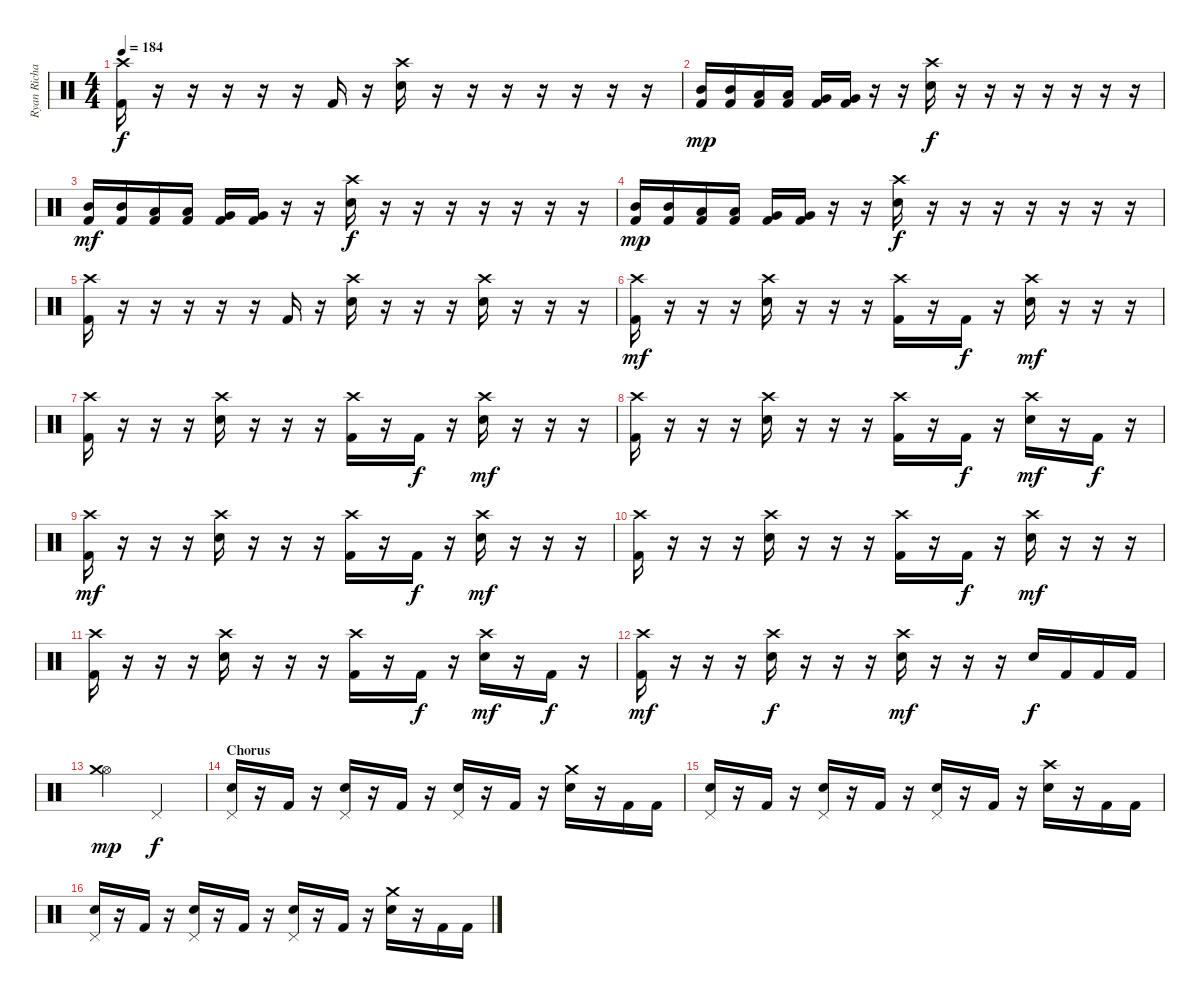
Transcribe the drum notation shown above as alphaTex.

\track ("Ryan Richards" "Ryan Richa") {instrument percussion}
\staff {score}
\articulation defaults
\ts (4 4)
\tempo 184
\clef neutral
\ks c
("Kick (hit) 2" "Crash high (hit)").16{dy f} r.16 r.16 r.16 r.16 r.16 "Kick (hit) 2".16 r.16 ("Snare (hit) 2" "Crash high (hit)").16 r.16 r.16 r.16 r.16 r.16 r.16 r.16 |
("Kick (hit) 2" "Mid Tom (hit)").16{dy mp} ("Kick (hit) 2" "Mid Tom (hit)").16 ("Kick (hit) 2" "Low Tom (hit)").16 ("Kick (hit) 2" "Low Tom (hit)").16 ("Kick (hit) 2" "Very Low Tom (hit)").16 ("Kick (hit) 2" "Very Low Tom (hit)").16 r.16 r.16 ("Snare (hit) 2" "Crash high (hit)").16{dy f} r.16 r.16 r.16 r.16 r.16 r.16 r.16 |
("Kick (hit) 2" "Mid Tom (hit)").16{dy mf} ("Kick (hit) 2" "Mid Tom (hit)").16 ("Kick (hit) 2" "Low Tom (hit)").16 ("Kick (hit) 2" "Low Tom (hit)").16 ("Kick (hit) 2" "Very Low Tom (hit)").16 ("Kick (hit) 2" "Very Low Tom (hit)").16 r.16 r.16 ("Snare (hit) 2" "Crash high (hit)").16{dy f} r.16 r.16 r.16 r.16 r.16 r.16 r.16 |
("Kick (hit) 2" "Mid Tom (hit)").16{dy mp} ("Kick (hit) 2" "Mid Tom (hit)").16 ("Kick (hit) 2" "Low Tom (hit)").16 ("Kick (hit) 2" "Low Tom (hit)").16 ("Kick (hit) 2" "Very Low Tom (hit)").16 ("Kick (hit) 2" "Very Low Tom (hit)").16 r.16 r.16 ("Snare (hit) 2" "Crash high (hit)").16{dy f} r.16 r.16 r.16 r.16 r.16 r.16 r.16 |
("Kick (hit) 2" "Crash high (hit)").16 r.16 r.16 r.16 r.16 r.16 "Kick (hit) 2".16 r.16 ("Snare (hit) 2" "Crash high (hit)").16 r.16 r.16 r.16 ("Snare (hit) 2" "Crash high (hit)").16 r.16 r.16 r.16 |
("Kick (hit) 2" "Crash high (hit)").16{dy mf} r.16 r.16 r.16 ("Snare (hit) 2" "Crash high (hit)").16 r.16 r.16 r.16 ("Kick (hit) 2" "Crash high (hit)").16 r.16 "Kick (hit) 2".16{dy f} r.16 ("Snare (hit) 2" "Crash high (hit)").16{dy mf} r.16 r.16 r.16 |
("Kick (hit) 2" "Crash high (hit)").16 r.16 r.16 r.16 ("Snare (hit) 2" "Crash high (hit)").16 r.16 r.16 r.16 ("Kick (hit) 2" "Crash high (hit)").16 r.16 "Kick (hit) 2".16{dy f} r.16 ("Snare (hit) 2" "Crash high (hit)").16{dy mf} r.16 r.16 r.16 |
("Kick (hit) 2" "Crash high (hit)").16 r.16 r.16 r.16 ("Snare (hit) 2" "Crash high (hit)").16 r.16 r.16 r.16 ("Kick (hit) 2" "Crash high (hit)").16 r.16 "Kick (hit) 2".16{dy f} r.16 ("Snare (hit) 2" "Crash high (hit)").16{dy mf} r.16 "Kick (hit) 2".16{dy f} r.16 |
("Kick (hit) 2" "Crash high (hit)").16{dy mf} r.16 r.16 r.16 ("Snare (hit) 2" "Crash high (hit)").16 r.16 r.16 r.16 ("Kick (hit) 2" "Crash high (hit)").16 r.16 "Kick (hit) 2".16{dy f} r.16 ("Snare (hit) 2" "Crash high (hit)").16{dy mf} r.16 r.16 r.16 |
("Kick (hit) 2" "Crash high (hit)").16 r.16 r.16 r.16 ("Snare (hit) 2" "Crash high (hit)").16 r.16 r.16 r.16 ("Kick (hit) 2" "Crash high (hit)").16 r.16 "Kick (hit) 2".16{dy f} r.16 ("Snare (hit) 2" "Crash high (hit)").16{dy mf} r.16 r.16 r.16 |
("Kick (hit) 2" "Crash high (hit)").16 r.16 r.16 r.16 ("Snare (hit) 2" "Crash high (hit)").16 r.16 r.16 r.16 ("Kick (hit) 2" "Crash high (hit)").16 r.16 "Kick (hit) 2".16{dy f} r.16 ("Snare (hit) 2" "Crash high (hit)").16{dy mf} r.16 "Kick (hit) 2".16{dy f} r.16 |
("Kick (hit) 2" "Crash high (hit)").16{dy mf} r.16 r.16 r.16 ("Snare (hit) 2" "Crash high (hit)").16{dy f} r.16 r.16 r.16 ("Snare (hit) 2" "Crash high (hit)").16{dy mf} r.16 r.16 r.16 "Snare (hit) 2".16{dy f} "Kick (hit) 2".16 "Kick (hit) 2".16 "Kick (hit) 2".16 |
("Hi-Hat (open)" "Crash medium (hit)").2{dy mp} "Pedal Hi-Hat (hit)".2{dy f} |
\section ("" "Chorus")
("Snare (hit) 2" "Pedal Hi-Hat (hit)").16 r.16 "Kick (hit) 2".16 r.16 ("Snare (hit) 2" "Pedal Hi-Hat (hit)").16 r.16 "Kick (hit) 2".16 r.16 ("Snare (hit) 2" "Pedal Hi-Hat (hit)").16 r.16 "Kick (hit) 2".16 r.16 ("Snare (hit) 2" "Crash medium (hit)").16 r.16 "Kick (hit) 2".16 "Kick (hit) 2".16 |
("Snare (hit) 2" "Pedal Hi-Hat (hit)").16 r.16 "Kick (hit) 2".16 r.16 ("Snare (hit) 2" "Pedal Hi-Hat (hit)").16 r.16 "Kick (hit) 2".16 r.16 ("Snare (hit) 2" "Pedal Hi-Hat (hit)").16 r.16 "Kick (hit) 2".16 r.16 ("Snare (hit) 2" "Crash high (hit)").16 r.16 "Kick (hit) 2".16 "Kick (hit) 2".16 |
("Snare (hit) 2" "Pedal Hi-Hat (hit)").16 r.16 "Kick (hit) 2".16 r.16 ("Snare (hit) 2" "Pedal Hi-Hat (hit)").16 r.16 "Kick (hit) 2".16 r.16 ("Snare (hit) 2" "Pedal Hi-Hat (hit)").16 r.16 "Kick (hit) 2".16 r.16 ("Snare (hit) 2" "Crash medium (hit)").16 r.16 "Kick (hit) 2".16 "Kick (hit) 2".16
